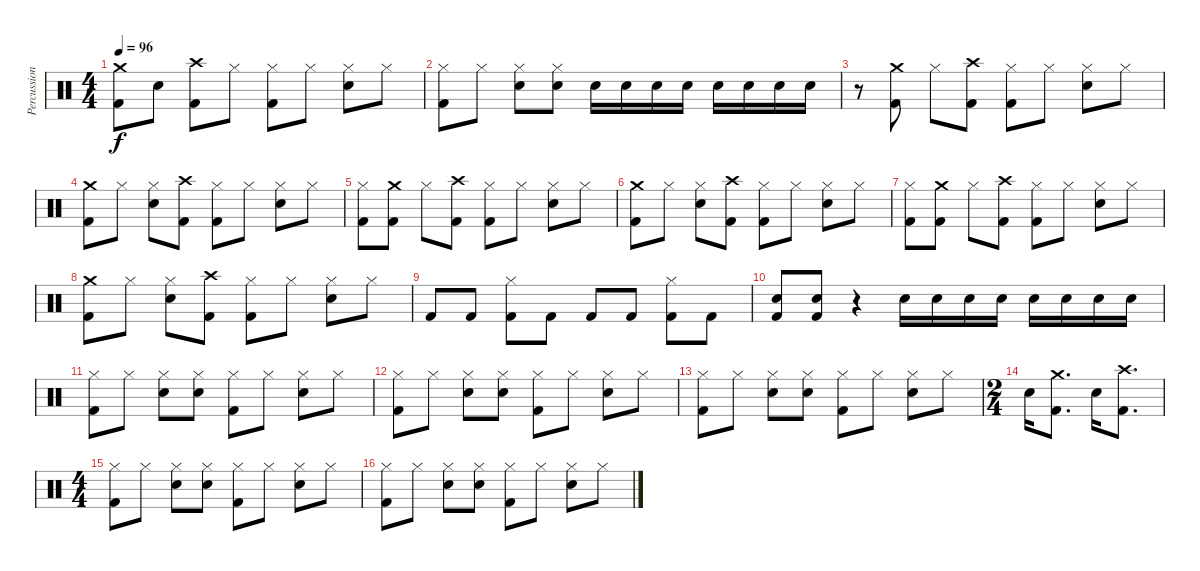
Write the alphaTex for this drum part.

\track ("Percussion" "Percussion") {instrument percussion}
\staff {score}
\articulation defaults
\ts (4 4)
\tempo 96
\clef neutral
\ks c
("Crash medium (hit)" "Kick (hit) 2").8{dy f} "Snare (hit) 2".8 ("Crash high (hit)" "Kick (hit) 2").8 "Hi-Hat (closed)".8 ("Hi-Hat (closed)" "Kick (hit) 2").8 "Hi-Hat (closed)".8 ("Hi-Hat (closed)" "Snare (hit) 2").8 "Hi-Hat (closed)".8 |
("Hi-Hat (closed)" "Kick (hit) 2").8 "Hi-Hat (closed)".8 ("Hi-Hat (closed)" "Snare (hit) 2").8 ("Hi-Hat (closed)" "Snare (hit) 2").8 "Snare (hit) 2".16 "Snare (hit) 2".16 "Snare (hit) 2".16 "Snare (hit) 2".16 "Snare (hit) 2".16 "Snare (hit) 2".16 "Snare (hit) 2".16 "Snare (hit) 2".16 |
r.8 ("Crash medium (hit)" "Kick (hit) 2").8 "Hi-Hat (closed)".8 ("Crash high (hit)" "Kick (hit) 2").8 ("Hi-Hat (closed)" "Kick (hit) 2").8 "Hi-Hat (closed)".8 ("Hi-Hat (closed)" "Snare (hit) 2").8 "Hi-Hat (closed)".8 |
("Crash medium (hit)" "Kick (hit) 2").8 "Hi-Hat (closed)".8 ("Hi-Hat (closed)" "Snare (hit) 2").8 ("Crash high (hit)" "Kick (hit) 2").8 ("Hi-Hat (closed)" "Kick (hit) 2").8 "Hi-Hat (closed)".8 ("Hi-Hat (closed)" "Snare (hit) 2").8 "Hi-Hat (closed)".8 |
("Kick (hit) 2" "Hi-Hat (closed)").8 ("Crash medium (hit)" "Kick (hit) 2").8 "Hi-Hat (closed)".8 ("Crash high (hit)" "Kick (hit) 2").8 ("Hi-Hat (closed)" "Kick (hit) 2").8 "Hi-Hat (closed)".8 ("Hi-Hat (closed)" "Snare (hit) 2").8 "Hi-Hat (closed)".8 |
("Crash medium (hit)" "Kick (hit) 2").8 "Hi-Hat (closed)".8 ("Hi-Hat (closed)" "Snare (hit) 2").8 ("Crash high (hit)" "Kick (hit) 2").8 ("Hi-Hat (closed)" "Kick (hit) 2").8 "Hi-Hat (closed)".8 ("Hi-Hat (closed)" "Snare (hit) 2").8 "Hi-Hat (closed)".8 |
("Kick (hit) 2" "Hi-Hat (closed)").8 ("Crash medium (hit)" "Kick (hit) 2").8 "Hi-Hat (closed)".8 ("Crash high (hit)" "Kick (hit) 2").8 ("Hi-Hat (closed)" "Kick (hit) 2").8 "Hi-Hat (closed)".8 ("Hi-Hat (closed)" "Snare (hit) 2").8 "Hi-Hat (closed)".8 |
("Crash medium (hit)" "Kick (hit) 2").8 "Hi-Hat (closed)".8 ("Hi-Hat (closed)" "Snare (hit) 2").8 ("Crash high (hit)" "Kick (hit) 2").8 ("Hi-Hat (closed)" "Kick (hit) 2").8 "Hi-Hat (closed)".8 ("Hi-Hat (closed)" "Snare (hit) 2").8 "Hi-Hat (closed)".8 |
"Kick (hit) 2".8 "Kick (hit) 2".8 ("Hi-Hat (closed)" "Kick (hit) 2").8 "Kick (hit) 2".8 "Kick (hit) 2".8 "Kick (hit) 2".8 ("Hi-Hat (closed)" "Kick (hit) 2").8 "Kick (hit) 2".8 |
("Snare (hit) 2" "Kick (hit) 2").8 ("Snare (hit) 2" "Kick (hit) 2").8 r.4 "Snare (hit) 2".16 "Snare (hit) 2".16 "Snare (hit) 2".16 "Snare (hit) 2".16 "Snare (hit) 2".16 "Snare (hit) 2".16 "Snare (hit) 2".16 "Snare (hit) 2".16 |
("Hi-Hat (closed)" "Kick (hit) 2").8 "Hi-Hat (closed)".8 ("Hi-Hat (closed)" "Snare (hit) 2").8 ("Hi-Hat (closed)" "Snare (hit) 2").8 ("Hi-Hat (closed)" "Kick (hit) 2").8 "Hi-Hat (closed)".8 ("Hi-Hat (closed)" "Snare (hit) 2").8 "Hi-Hat (closed)".8 |
("Hi-Hat (closed)" "Kick (hit) 2").8 "Hi-Hat (closed)".8 ("Hi-Hat (closed)" "Snare (hit) 2").8 ("Hi-Hat (closed)" "Snare (hit) 2").8 ("Hi-Hat (closed)" "Kick (hit) 2").8 "Hi-Hat (closed)".8 ("Hi-Hat (closed)" "Snare (hit) 2").8 "Hi-Hat (closed)".8 |
("Hi-Hat (closed)" "Kick (hit) 2").8 "Hi-Hat (closed)".8 ("Hi-Hat (closed)" "Snare (hit) 2").8 ("Hi-Hat (closed)" "Snare (hit) 2").8 ("Hi-Hat (closed)" "Kick (hit) 2").8 "Hi-Hat (closed)".8 ("Hi-Hat (closed)" "Snare (hit) 2").8 "Hi-Hat (closed)".8 |
\ts (2 4)
"Snare (hit) 2".16 ("Crash medium (hit)" "Kick (hit) 2").8{d} "Snare (hit) 2".16 ("Crash high (hit)" "Kick (hit) 2").8{d} |
\ts (4 4)
("Hi-Hat (closed)" "Kick (hit) 2").8 "Hi-Hat (closed)".8 ("Hi-Hat (closed)" "Snare (hit) 2").8 ("Hi-Hat (closed)" "Snare (hit) 2").8 ("Hi-Hat (closed)" "Kick (hit) 2").8 "Hi-Hat (closed)".8 ("Hi-Hat (closed)" "Snare (hit) 2").8 "Hi-Hat (closed)".8 |
("Hi-Hat (closed)" "Kick (hit) 2").8 "Hi-Hat (closed)".8 ("Hi-Hat (closed)" "Snare (hit) 2").8 ("Hi-Hat (closed)" "Snare (hit) 2").8 ("Hi-Hat (closed)" "Kick (hit) 2").8 "Hi-Hat (closed)".8 ("Hi-Hat (closed)" "Snare (hit) 2").8 "Hi-Hat (closed)".8
